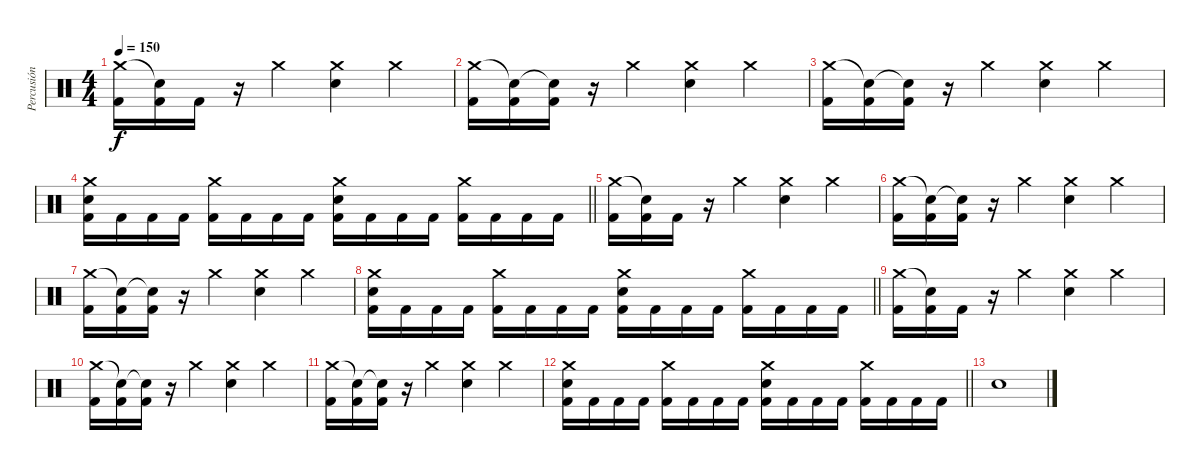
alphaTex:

\track ("Percusión" "Percusión") {instrument percussion}
\staff {score}
\articulation defaults
\ts (4 4)
\tempo 150
\clef neutral
\ks c
("Crash medium (hit)" "Kick (hit) 2").16{dy f} ("Snare (hit)"{t} "Kick (hit) 2").16 "Kick (hit) 2".16 r.16 "Crash medium (hit)".4 ("Crash medium (hit)" "Electric Snare (hit)").4 "Crash medium (hit)".4 |
("Crash medium (hit)" "Kick (hit) 2").16 ("Snare (hit)"{t} "Kick (hit) 2").16 ("Snare (hit)"{t} "Kick (hit) 2").16 r.16 "Crash medium (hit)".4 ("Crash medium (hit)" "Electric Snare (hit)").4 "Crash medium (hit)".4 |
("Crash medium (hit)" "Kick (hit) 2").16 ("Snare (hit)"{t} "Kick (hit) 2").16 ("Snare (hit)"{t} "Kick (hit) 2").16 r.16 "Crash medium (hit)".4 ("Crash medium (hit)" "Electric Snare (hit)").4 "Crash medium (hit)".4 |
\barLineRight lightlight
("Crash medium (hit)" "Electric Snare (hit)" "Kick (hit) 2").16 "Kick (hit) 2".16 "Kick (hit) 2".16 "Kick (hit) 2".16 ("Crash medium (hit)" "Kick (hit) 2").16 "Kick (hit) 2".16 "Kick (hit) 2".16 "Kick (hit) 2".16 ("Crash medium (hit)" "Electric Snare (hit)" "Kick (hit) 2").16 "Kick (hit) 2".16 "Kick (hit) 2".16 "Kick (hit) 2".16 ("Crash medium (hit)" "Kick (hit) 2").16 "Kick (hit) 2".16 "Kick (hit) 2".16 "Kick (hit) 2".16 |
("Crash medium (hit)" "Kick (hit) 2").16 ("Snare (hit)"{t} "Kick (hit) 2").16 "Kick (hit) 2".16 r.16 "Crash medium (hit)".4 ("Crash medium (hit)" "Electric Snare (hit)").4 "Crash medium (hit)".4 |
("Crash medium (hit)" "Kick (hit) 2").16 ("Snare (hit)"{t} "Kick (hit) 2").16 ("Snare (hit)"{t} "Kick (hit) 2").16 r.16 "Crash medium (hit)".4 ("Crash medium (hit)" "Electric Snare (hit)").4 "Crash medium (hit)".4 |
("Crash medium (hit)" "Kick (hit) 2").16 ("Snare (hit)"{t} "Kick (hit) 2").16 ("Snare (hit)"{t} "Kick (hit) 2").16 r.16 "Crash medium (hit)".4 ("Crash medium (hit)" "Electric Snare (hit)").4 "Crash medium (hit)".4 |
\barLineRight lightlight
("Crash medium (hit)" "Electric Snare (hit)" "Kick (hit) 2").16 "Kick (hit) 2".16 "Kick (hit) 2".16 "Kick (hit) 2".16 ("Crash medium (hit)" "Kick (hit) 2").16 "Kick (hit) 2".16 "Kick (hit) 2".16 "Kick (hit) 2".16 ("Crash medium (hit)" "Electric Snare (hit)" "Kick (hit) 2").16 "Kick (hit) 2".16 "Kick (hit) 2".16 "Kick (hit) 2".16 ("Crash medium (hit)" "Kick (hit) 2").16 "Kick (hit) 2".16 "Kick (hit) 2".16 "Kick (hit) 2".16 |
("Crash medium (hit)" "Kick (hit) 2").16 ("Snare (hit)"{t} "Kick (hit) 2").16 "Kick (hit) 2".16 r.16 "Crash medium (hit)".4 ("Crash medium (hit)" "Electric Snare (hit)").4 "Crash medium (hit)".4 |
("Crash medium (hit)" "Kick (hit) 2").16 ("Snare (hit)"{t} "Kick (hit) 2").16 ("Snare (hit)"{t} "Kick (hit) 2").16 r.16 "Crash medium (hit)".4 ("Crash medium (hit)" "Electric Snare (hit)").4 "Crash medium (hit)".4 |
("Crash medium (hit)" "Kick (hit) 2").16 ("Snare (hit)"{t} "Kick (hit) 2").16 ("Snare (hit)"{t} "Kick (hit) 2").16 r.16 "Crash medium (hit)".4 ("Crash medium (hit)" "Electric Snare (hit)").4 "Crash medium (hit)".4 |
\barLineRight lightlight
("Crash medium (hit)" "Electric Snare (hit)" "Kick (hit) 2").16 "Kick (hit) 2".16 "Kick (hit) 2".16 "Kick (hit) 2".16 ("Crash medium (hit)" "Kick (hit) 2").16 "Kick (hit) 2".16 "Kick (hit) 2".16 "Kick (hit) 2".16 ("Crash medium (hit)" "Electric Snare (hit)" "Kick (hit) 2").16 "Kick (hit) 2".16 "Kick (hit) 2".16 "Kick (hit) 2".16 ("Crash medium (hit)" "Kick (hit) 2").16 "Kick (hit) 2".16 "Kick (hit) 2".16 "Kick (hit) 2".16 |
"Electric Snare (hit)".1
